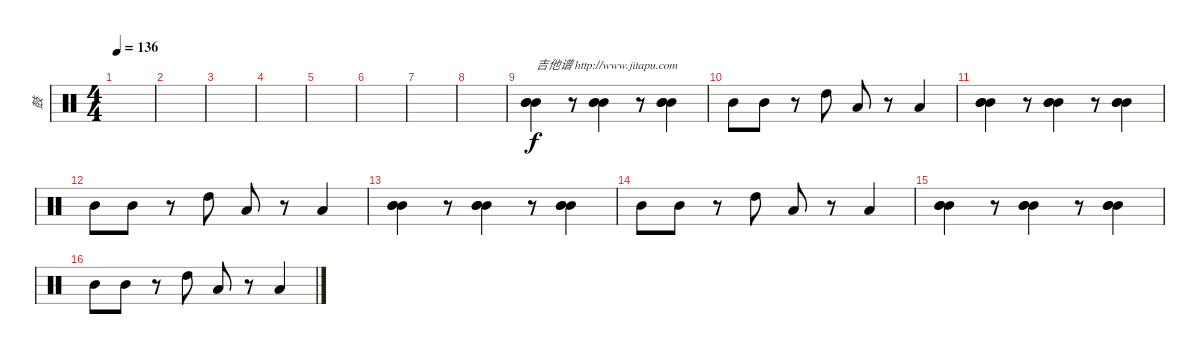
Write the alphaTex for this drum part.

\track ("鼓" "鼓") {instrument percussion}
\staff {score}
\articulation defaults
\ts (4 4)
\tempo 136
\clef neutral
\ks c
|
|
|
|
|
|
|
|
("Mid Tom (hit)" "Mid Tom (hit)" "Mid Tom (hit)").4{txt "吉他谱 http://www.jitapu.com"} r.8 ("Mid Tom (hit)" "Mid Tom (hit)" "Mid Tom (hit)").4 r.8 ("Mid Tom (hit)" "Mid Tom (hit)" "Mid Tom (hit)").4 |
"Mid Tom (hit)".8 "Mid Tom (hit)".8 r.8 "High Tom (hit)".8 "Low Floor Tom (hit)".8 r.8 "Low Tom (hit)".4 |
("Mid Tom (hit)" "Mid Tom (hit)" "Mid Tom (hit)").4 r.8 ("Mid Tom (hit)" "Mid Tom (hit)" "Mid Tom (hit)").4 r.8 ("Mid Tom (hit)" "Mid Tom (hit)" "Mid Tom (hit)").4 |
"Mid Tom (hit)".8 "Mid Tom (hit)".8 r.8 "High Tom (hit)".8 "Low Floor Tom (hit)".8 r.8 "Low Tom (hit)".4 |
("Mid Tom (hit)" "Mid Tom (hit)" "Mid Tom (hit)").4 r.8 ("Mid Tom (hit)" "Mid Tom (hit)" "Mid Tom (hit)").4 r.8 ("Mid Tom (hit)" "Mid Tom (hit)" "Mid Tom (hit)").4 |
"Mid Tom (hit)".8 "Mid Tom (hit)".8 r.8 "High Tom (hit)".8 "Low Floor Tom (hit)".8 r.8 "Low Tom (hit)".4 |
("Mid Tom (hit)" "Mid Tom (hit)" "Mid Tom (hit)").4 r.8 ("Mid Tom (hit)" "Mid Tom (hit)" "Mid Tom (hit)").4 r.8 ("Mid Tom (hit)" "Mid Tom (hit)" "Mid Tom (hit)").4 |
"Mid Tom (hit)".8 "Mid Tom (hit)".8 r.8 "High Tom (hit)".8 "Low Floor Tom (hit)".8 r.8 "Low Tom (hit)".4
